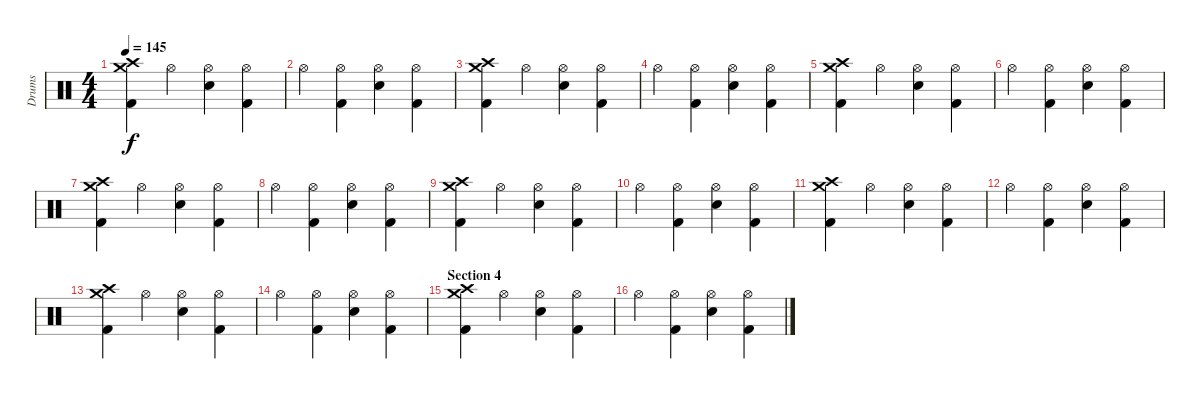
\track ("Drums" "Drums") {instrument percussion}
\staff {score}
\articulation defaults
\ts (4 4)
\tempo 145
\clef neutral
\ks c
("Crash medium (hit)" "Crash high (hit)" "Kick (hit) 2").4{dy f} "Hi-Hat (open)".4 ("Hi-Hat (open)" "Snare (hit) 2").4 ("Hi-Hat (open)" "Kick (hit) 2").4 |
"Hi-Hat (open)".4 ("Hi-Hat (open)" "Kick (hit) 2").4 ("Hi-Hat (open)" "Snare (hit) 2").4 ("Hi-Hat (open)" "Kick (hit) 2").4 |
("Crash medium (hit)" "Crash high (hit)" "Kick (hit) 2").4 "Hi-Hat (open)".4 ("Hi-Hat (open)" "Snare (hit) 2").4 ("Hi-Hat (open)" "Kick (hit) 2").4 |
"Hi-Hat (open)".4 ("Hi-Hat (open)" "Kick (hit) 2").4 ("Hi-Hat (open)" "Snare (hit) 2").4 ("Hi-Hat (open)" "Kick (hit) 2").4 |
("Crash medium (hit)" "Crash high (hit)" "Kick (hit) 2").4 "Hi-Hat (open)".4 ("Hi-Hat (open)" "Snare (hit) 2").4 ("Hi-Hat (open)" "Kick (hit) 2").4 |
"Hi-Hat (open)".4 ("Hi-Hat (open)" "Kick (hit) 2").4 ("Hi-Hat (open)" "Snare (hit) 2").4 ("Hi-Hat (open)" "Kick (hit) 2").4 |
("Crash medium (hit)" "Crash high (hit)" "Kick (hit) 2").4 "Hi-Hat (open)".4 ("Hi-Hat (open)" "Snare (hit) 2").4 ("Hi-Hat (open)" "Kick (hit) 2").4 |
"Hi-Hat (open)".4 ("Hi-Hat (open)" "Kick (hit) 2").4 ("Hi-Hat (open)" "Snare (hit) 2").4 ("Hi-Hat (open)" "Kick (hit) 2").4 |
("Crash medium (hit)" "Crash high (hit)" "Kick (hit) 2").4 "Hi-Hat (open)".4 ("Hi-Hat (open)" "Snare (hit) 2").4 ("Hi-Hat (open)" "Kick (hit) 2").4 |
"Hi-Hat (open)".4 ("Hi-Hat (open)" "Kick (hit) 2").4 ("Hi-Hat (open)" "Snare (hit) 2").4 ("Hi-Hat (open)" "Kick (hit) 2").4 |
("Crash medium (hit)" "Crash high (hit)" "Kick (hit) 2").4 "Hi-Hat (open)".4 ("Hi-Hat (open)" "Snare (hit) 2").4 ("Hi-Hat (open)" "Kick (hit) 2").4 |
"Hi-Hat (open)".4 ("Hi-Hat (open)" "Kick (hit) 2").4 ("Hi-Hat (open)" "Snare (hit) 2").4 ("Hi-Hat (open)" "Kick (hit) 2").4 |
("Crash medium (hit)" "Crash high (hit)" "Kick (hit) 2").4 "Hi-Hat (open)".4 ("Hi-Hat (open)" "Snare (hit) 2").4 ("Hi-Hat (open)" "Kick (hit) 2").4 |
"Hi-Hat (open)".4 ("Hi-Hat (open)" "Kick (hit) 2").4 ("Hi-Hat (open)" "Snare (hit) 2").4 ("Hi-Hat (open)" "Kick (hit) 2").4 |
\section ("" "Section 4")
("Crash medium (hit)" "Crash high (hit)" "Kick (hit) 2").4 "Hi-Hat (open)".4 ("Hi-Hat (open)" "Snare (hit) 2").4 ("Hi-Hat (open)" "Kick (hit) 2").4 |
"Hi-Hat (open)".4 ("Hi-Hat (open)" "Kick (hit) 2").4 ("Hi-Hat (open)" "Snare (hit) 2").4 ("Hi-Hat (open)" "Kick (hit) 2").4
